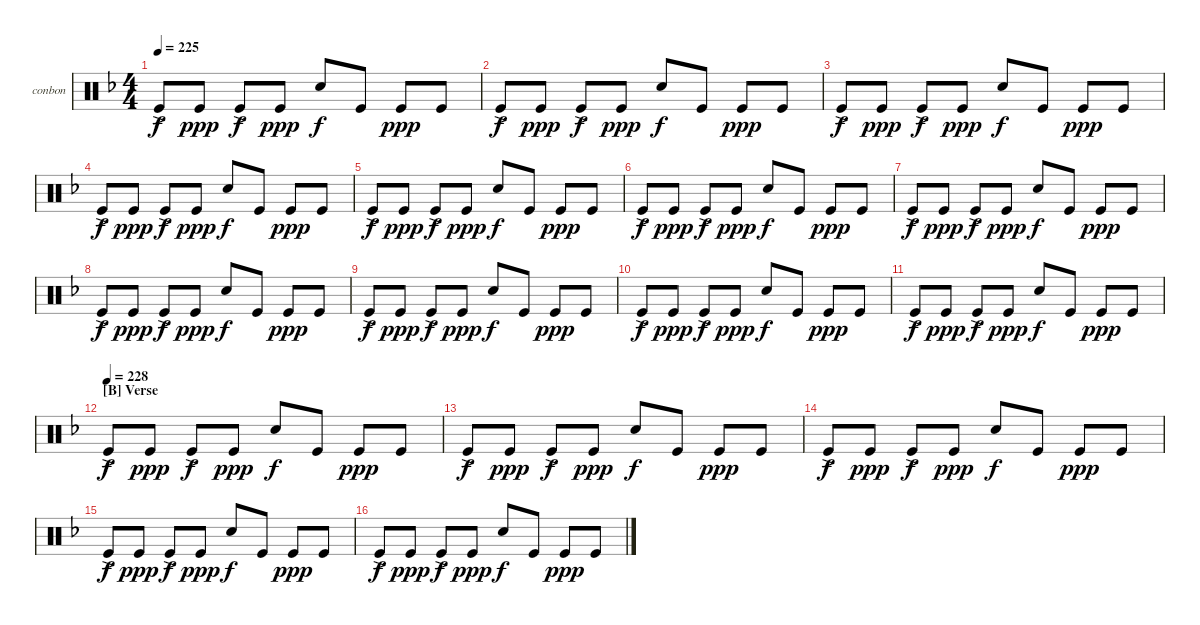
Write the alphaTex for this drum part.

\defaultSystemsLayout 4
\bracketExtendMode groupsimilarinstruments
\firstSystemTrackNameOrientation horizontal
\otherSystemsTrackNameOrientation horizontal
\track ("Bongos N Congas" "conbon") {instrument percussion}
\staff {score}
\articulation defaults
\ts (4 4)
\tempo 225
\clef neutral
\ks dminor "Kick (hit)"{ac}.8{dy f} "Kick (hit)".8{dy ppp} "Kick (hit)"{ac}.8{dy f} "Kick (hit)".8{dy ppp} "Snare (hit) 2".8{dy f} "Kick (hit)".8 "Kick (hit)".8{dy ppp} "Kick (hit)".8
|
"Kick (hit)"{ac}.8{dy f} "Kick (hit)".8{dy ppp} "Kick (hit)"{ac}.8{dy f} "Kick (hit)".8{dy ppp} "Snare (hit) 2".8{dy f} "Kick (hit)".8 "Kick (hit)".8{dy ppp} "Kick (hit)".8 |
"Kick (hit)"{ac}.8{dy f} "Kick (hit)".8{dy ppp} "Kick (hit)"{ac}.8{dy f} "Kick (hit)".8{dy ppp} "Snare (hit) 2".8{dy f} "Kick (hit)".8 "Kick (hit)".8{dy ppp} "Kick (hit)".8 |
"Kick (hit)"{ac}.8{dy f} "Kick (hit)".8{dy ppp} "Kick (hit)"{ac}.8{dy f} "Kick (hit)".8{dy ppp} "Snare (hit) 2".8{dy f} "Kick (hit)".8 "Kick (hit)".8{dy ppp} "Kick (hit)".8 |
"Kick (hit)"{ac}.8{dy f} "Kick (hit)".8{dy ppp} "Kick (hit)"{ac}.8{dy f} "Kick (hit)".8{dy ppp} "Snare (hit) 2".8{dy f} "Kick (hit)".8 "Kick (hit)".8{dy ppp} "Kick (hit)".8 |
"Kick (hit)"{ac}.8{dy f} "Kick (hit)".8{dy ppp} "Kick (hit)"{ac}.8{dy f} "Kick (hit)".8{dy ppp} "Snare (hit) 2".8{dy f} "Kick (hit)".8 "Kick (hit)".8{dy ppp} "Kick (hit)".8 |
"Kick (hit)"{ac}.8{dy f} "Kick (hit)".8{dy ppp} "Kick (hit)"{ac}.8{dy f} "Kick (hit)".8{dy ppp} "Snare (hit) 2".8{dy f} "Kick (hit)".8 "Kick (hit)".8{dy ppp} "Kick (hit)".8 |
"Kick (hit)"{ac}.8{dy f} "Kick (hit)".8{dy ppp} "Kick (hit)"{ac}.8{dy f} "Kick (hit)".8{dy ppp} "Snare (hit) 2".8{dy f} "Kick (hit)".8 "Kick (hit)".8{dy ppp} "Kick (hit)".8 |
"Kick (hit)"{ac}.8{dy f} "Kick (hit)".8{dy ppp} "Kick (hit)"{ac}.8{dy f} "Kick (hit)".8{dy ppp} "Snare (hit) 2".8{dy f} "Kick (hit)".8 "Kick (hit)".8{dy ppp} "Kick (hit)".8 |
"Kick (hit)"{ac}.8{dy f} "Kick (hit)".8{dy ppp} "Kick (hit)"{ac}.8{dy f} "Kick (hit)".8{dy ppp} "Snare (hit) 2".8{dy f} "Kick (hit)".8 "Kick (hit)".8{dy ppp} "Kick (hit)".8 |
"Kick (hit)"{ac}.8{dy f} "Kick (hit)".8{dy ppp} "Kick (hit)"{ac}.8{dy f} "Kick (hit)".8{dy ppp} "Snare (hit) 2".8{dy f} "Kick (hit)".8 "Kick (hit)".8{dy ppp} "Kick (hit)".8 |
\section ("B" "Verse")
\tempo (228)
"Kick (hit)"{ac}.8{dy f} "Kick (hit)".8{dy ppp} "Kick (hit)"{ac}.8{dy f} "Kick (hit)".8{dy ppp} "Snare (hit) 2".8{dy f} "Kick (hit)".8 "Kick (hit)".8{dy ppp} "Kick (hit)".8 |
"Kick (hit)"{ac}.8{dy f} "Kick (hit)".8{dy ppp} "Kick (hit)"{ac}.8{dy f} "Kick (hit)".8{dy ppp} "Snare (hit) 2".8{dy f} "Kick (hit)".8 "Kick (hit)".8{dy ppp} "Kick (hit)".8 |
"Kick (hit)"{ac}.8{dy f} "Kick (hit)".8{dy ppp} "Kick (hit)"{ac}.8{dy f} "Kick (hit)".8{dy ppp} "Snare (hit) 2".8{dy f} "Kick (hit)".8 "Kick (hit)".8{dy ppp} "Kick (hit)".8 |
"Kick (hit)"{ac}.8{dy f} "Kick (hit)".8{dy ppp} "Kick (hit)"{ac}.8{dy f} "Kick (hit)".8{dy ppp} "Snare (hit) 2".8{dy f} "Kick (hit)".8 "Kick (hit)".8{dy ppp} "Kick (hit)".8 |
"Kick (hit)"{ac}.8{dy f} "Kick (hit)".8{dy ppp} "Kick (hit)"{ac}.8{dy f} "Kick (hit)".8{dy ppp} "Snare (hit) 2".8{dy f} "Kick (hit)".8 "Kick (hit)".8{dy ppp} "Kick (hit)".8
